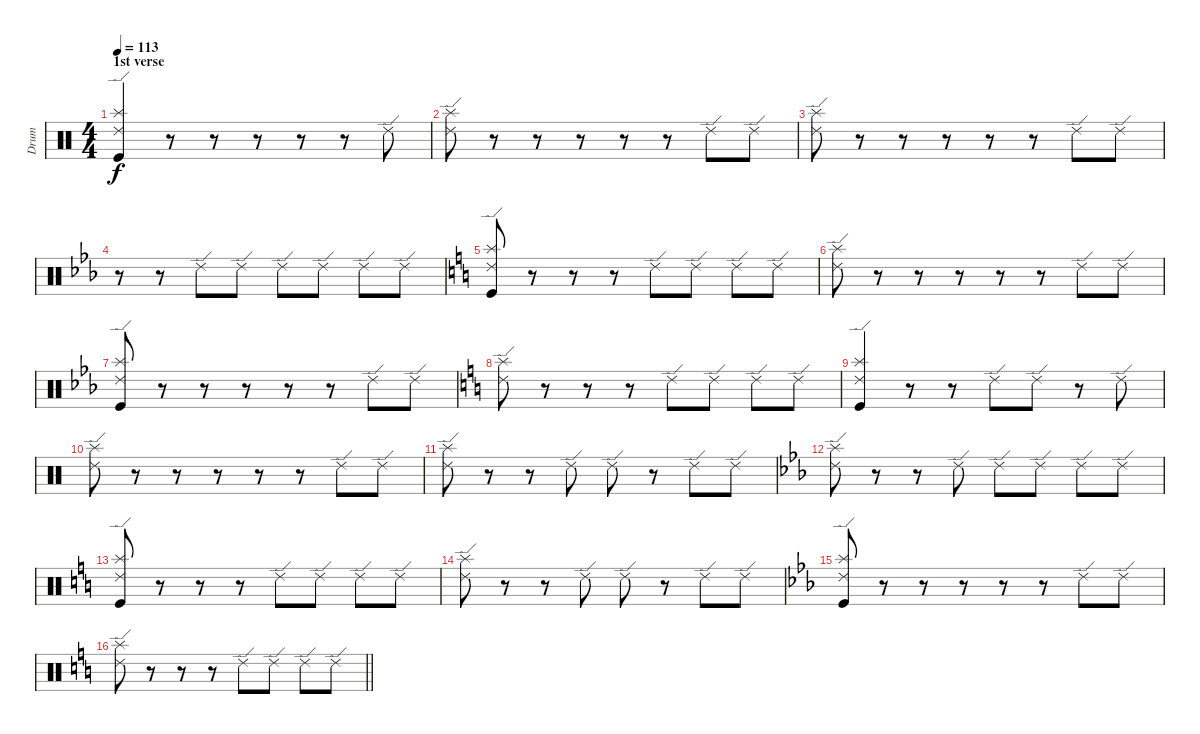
\track ("Drum" "Drum") {instrument percussion}
\staff {score}
\articulation defaults
\ts (4 4)
\section ("" "1st verse")
\tempo 113
\clef neutral
\ks c
("Ride (edge) 2" "Splash (hit)" "Kick (hit)").4{dy f} r.8 r.8 r.8 r.8 r.8 "Ride (edge) 2".8 |
("Ride (edge) 2" "Splash (hit)").8 r.8 r.8 r.8 r.8 r.8 "Ride (edge) 2".8 "Ride (edge) 2".8 |
("Ride (edge) 2" "Splash (hit)").8 r.8 r.8 r.8 r.8 r.8 "Ride (edge) 2".8 "Ride (edge) 2".8 |
\ks eb
r.8 r.8 "Ride (edge) 2".8 "Ride (edge) 2".8 "Ride (edge) 2".8 "Ride (edge) 2".8 "Ride (edge) 2".8 "Ride (edge) 2".8 |
\ks c
("Ride (edge) 2" "Splash (hit)" "Kick (hit)").8 r.8 r.8 r.8 "Ride (edge) 2".8 "Ride (edge) 2".8 "Ride (edge) 2".8 "Ride (edge) 2".8 |
("Ride (edge) 2" "Splash (hit)").8 r.8 r.8 r.8 r.8 r.8 "Ride (edge) 2".8 "Ride (edge) 2".8 |
\ks eb
("Ride (edge) 2" "Splash (hit)" "Kick (hit)").8 r.8 r.8 r.8 r.8 r.8 "Ride (edge) 2".8 "Ride (edge) 2".8 |
\ks c
("Ride (edge) 2" "Splash (hit)").8 r.8 r.8 r.8 "Ride (edge) 2".8 "Ride (edge) 2".8 "Ride (edge) 2".8 "Ride (edge) 2".8 |
("Ride (edge) 2" "Splash (hit)" "Kick (hit)").4 r.8 r.8 "Ride (edge) 2".8 "Ride (edge) 2".8 r.8 "Ride (edge) 2".8 |
("Ride (edge) 2" "Splash (hit)").8 r.8 r.8 r.8 r.8 r.8 "Ride (edge) 2".8 "Ride (edge) 2".8 |
("Ride (edge) 2" "Splash (hit)").8 r.8 r.8 "Ride (edge) 2".8 "Ride (edge) 2".8 r.8 "Ride (edge) 2".8 "Ride (edge) 2".8 |
\ks eb
("Ride (edge) 2" "Splash (hit)").8 r.8 r.8 "Ride (edge) 2".8 "Ride (edge) 2".8 "Ride (edge) 2".8 "Ride (edge) 2".8 "Ride (edge) 2".8 |
\ks c
("Ride (edge) 2" "Splash (hit)" "Kick (hit)").8 r.8 r.8 r.8 "Ride (edge) 2".8 "Ride (edge) 2".8 "Ride (edge) 2".8 "Ride (edge) 2".8 |
("Ride (edge) 2" "Splash (hit)").8 r.8 r.8 "Ride (edge) 2".8 "Ride (edge) 2".8 r.8 "Ride (edge) 2".8 "Ride (edge) 2".8 |
\ks eb
("Ride (edge) 2" "Splash (hit)" "Kick (hit)").8 r.8 r.8 r.8 r.8 r.8 "Ride (edge) 2".8 "Ride (edge) 2".8 |
\barLineRight lightlight
\ks c
("Ride (edge) 2" "Splash (hit)").8 r.8 r.8 r.8 "Ride (edge) 2".8 "Ride (edge) 2".8 "Ride (edge) 2".8 "Ride (edge) 2".8
